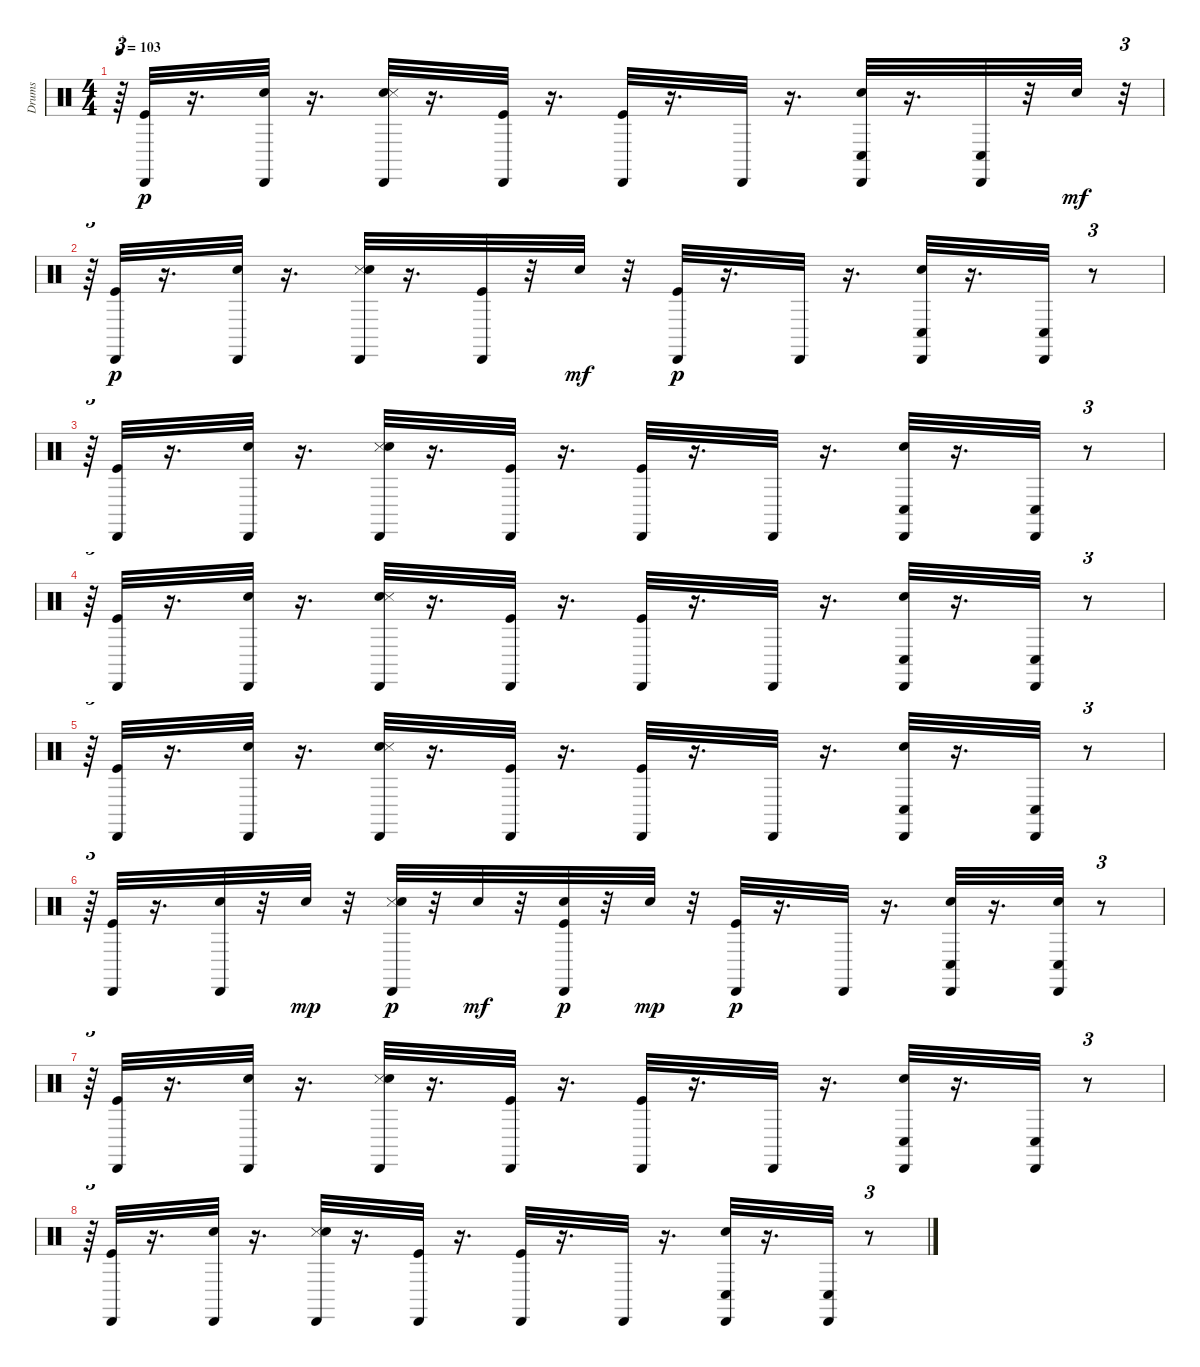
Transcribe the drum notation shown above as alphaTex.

\track ("Drums" "Drums") {instrument percussion}
\staff {score}
\articulation defaults
\ts (4 4)
\tempo 103
\clef neutral
\ks c
r.64{tu (3 2) dy p} ("Kick (hit)" "Cabasa (hit)").32 r.16{d} ("Snare (hit) 2" "Cabasa (hit)").32 r.16{d} ("Snare (hit) 2" "Snare (side stick) 3" "Cabasa (hit)").32 r.16{d} ("Kick (hit)" "Cabasa (hit)").32 r.16{d} ("Kick (hit)" "Cabasa (hit)").32 r.16{d} "Cabasa (hit)".32 r.16{d} ("Hand Clap (hit)" "Conga low (hit)" "Cabasa (hit)").32 r.16{d} ("Conga low (hit)" "Cabasa (hit)").32 r.32 "Snare (hit) 2".32{dy mf} r.32{tu (3 2)} |
r.64{tu (3 2)} ("Kick (hit)" "Cabasa (hit)").32{dy p} r.16{d} ("Snare (hit) 2" "Cabasa (hit)").32 r.16{d} ("Snare (side stick) 3" "Snare (hit) 2" "Cabasa (hit)").32 r.16{d} ("Kick (hit)" "Cabasa (hit)").32 r.32 "Snare (hit) 2".32{dy mf} r.32 ("Kick (hit)" "Cabasa (hit)").32{dy p} r.16{d} "Cabasa (hit)".32 r.16{d} ("Conga low (hit)" "Hand Clap (hit)" "Cabasa (hit)").32 r.16{d} ("Conga low (hit)" "Cabasa (hit)").32 r.8{tu (3 2)} |
r.64{tu (3 2)} ("Kick (hit)" "Cabasa (hit)").32 r.16{d} ("Snare (hit) 2" "Cabasa (hit)").32 r.16{d} ("Snare (side stick) 3" "Snare (hit) 2" "Cabasa (hit)").32 r.16{d} ("Kick (hit)" "Cabasa (hit)").32 r.16{d} ("Kick (hit)" "Cabasa (hit)").32 r.16{d} "Cabasa (hit)".32 r.16{d} ("Hand Clap (hit)" "Conga low (hit)" "Cabasa (hit)").32 r.16{d} ("Conga low (hit)" "Cabasa (hit)").32 r.8{tu (3 2)} |
r.64{tu (3 2)} ("Kick (hit)" "Cabasa (hit)").32 r.16{d} ("Snare (hit) 2" "Cabasa (hit)").32 r.16{d} ("Snare (hit) 2" "Snare (side stick) 3" "Cabasa (hit)").32 r.16{d} ("Kick (hit)" "Cabasa (hit)").32 r.16{d} ("Kick (hit)" "Cabasa (hit)").32 r.16{d} "Cabasa (hit)".32 r.16{d} ("Hand Clap (hit)" "Conga low (hit)" "Cabasa (hit)").32 r.16{d} ("Conga low (hit)" "Cabasa (hit)").32 r.8{tu (3 2)} |
r.64{tu (3 2)} ("Kick (hit)" "Cabasa (hit)").32 r.16{d} ("Snare (hit) 2" "Cabasa (hit)").32 r.16{d} ("Snare (hit) 2" "Snare (side stick) 3" "Cabasa (hit)").32 r.16{d} ("Kick (hit)" "Cabasa (hit)").32 r.16{d} ("Kick (hit)" "Cabasa (hit)").32 r.16{d} "Cabasa (hit)".32 r.16{d} ("Conga low (hit)" "Hand Clap (hit)" "Cabasa (hit)").32 r.16{d} ("Conga low (hit)" "Cabasa (hit)").32 r.8{tu (3 2)} |
r.64{tu (3 2)} ("Kick (hit)" "Cabasa (hit)").32 r.16{d} ("Snare (hit) 2" "Cabasa (hit)").32 r.32 "Snare (hit) 2".32{dy mp} r.32 ("Snare (side stick) 3" "Snare (hit) 2" "Cabasa (hit)").32{dy p} r.32 "Snare (hit) 2".32{dy mf} r.32 ("Kick (hit)" "Snare (hit) 2" "Cabasa (hit)").32{dy p} r.32 "Snare (hit) 2".32{dy mp} r.32 ("Kick (hit)" "Cabasa (hit)").32{dy p} r.16{d} "Cabasa (hit)".32 r.16{d} ("Conga low (hit)" "Hand Clap (hit)" "Cabasa (hit)").32 r.16{d} ("Conga low (hit)" "Snare (hit) 2" "Cabasa (hit)").32 r.8{tu (3 2)} |
r.64{tu (3 2)} ("Kick (hit)" "Cabasa (hit)").32 r.16{d} ("Snare (hit) 2" "Cabasa (hit)").32 r.16{d} ("Snare (side stick) 3" "Snare (hit) 2" "Cabasa (hit)").32 r.16{d} ("Kick (hit)" "Cabasa (hit)").32 r.16{d} ("Kick (hit)" "Cabasa (hit)").32 r.16{d} "Cabasa (hit)".32 r.16{d} ("Conga low (hit)" "Hand Clap (hit)" "Cabasa (hit)").32 r.16{d} ("Conga low (hit)" "Cabasa (hit)").32 r.8{tu (3 2)} |
r.64{tu (3 2)} ("Kick (hit)" "Cabasa (hit)").32 r.16{d} ("Snare (hit) 2" "Cabasa (hit)").32 r.16{d} ("Snare (side stick) 3" "Snare (hit) 2" "Cabasa (hit)").32 r.16{d} ("Kick (hit)" "Cabasa (hit)").32 r.16{d} ("Kick (hit)" "Cabasa (hit)").32 r.16{d} "Cabasa (hit)".32 r.16{d} ("Conga low (hit)" "Hand Clap (hit)" "Cabasa (hit)").32 r.16{d} ("Conga low (hit)" "Cabasa (hit)").32 r.8{tu (3 2)}
